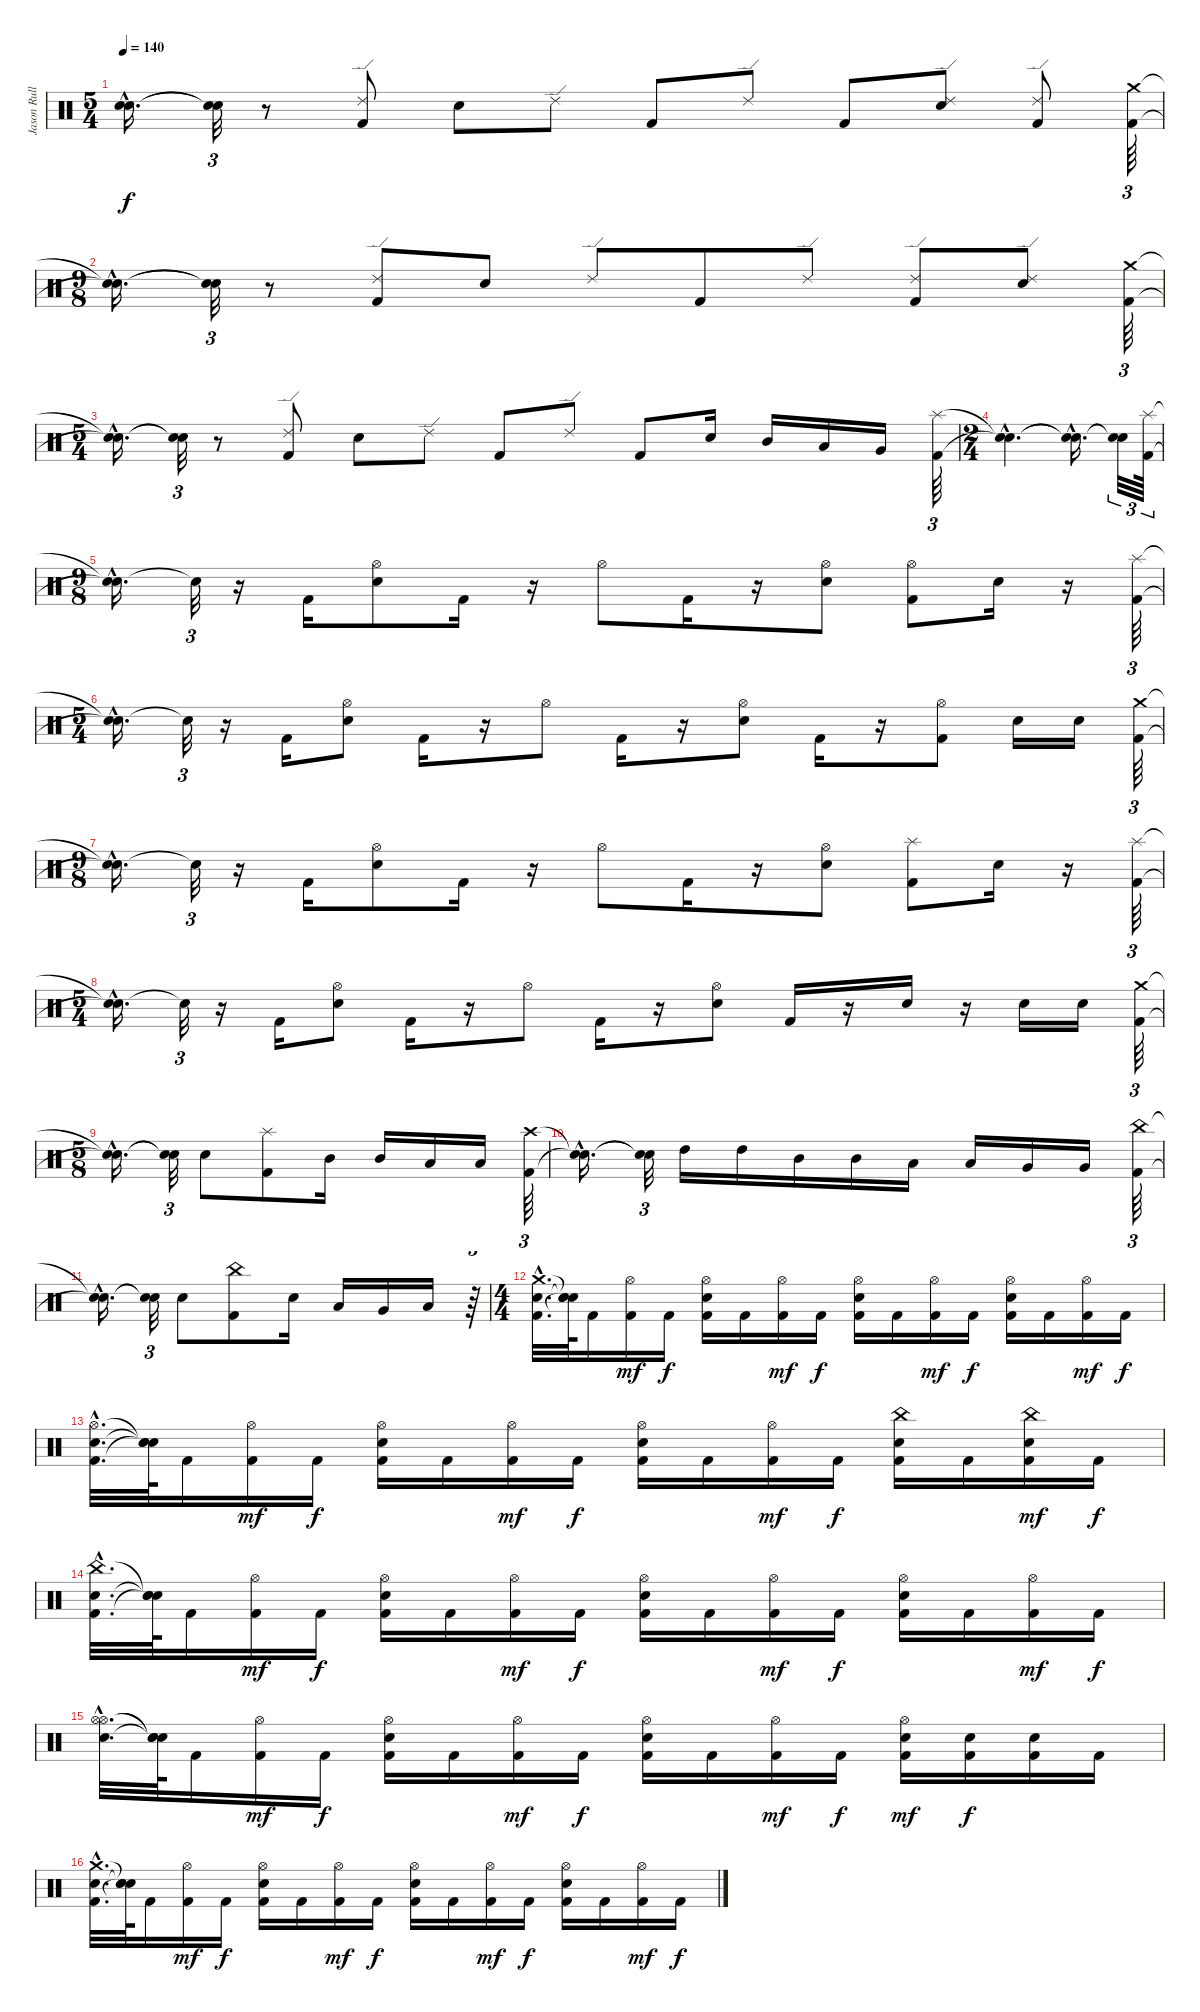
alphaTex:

\track ("Jason Rullo" "Jason Rull") {instrument percussion}
\staff {score}
\articulation defaults
\ts (5 4)
\tempo 140
\clef neutral
\ks c
("Snare (hit)"{hac t} "Snare (hit)"{hac t}).16{d dy f} ("Snare (hit)"{t} "Snare (hit)"{t}).32{tu (3 2)} r.8 ("Kick (hit) 2" "Ride (edge) 2").8 "Electric Snare (hit)".8 "Ride (edge) 2".8 "Kick (hit) 2".8 "Ride (edge) 2".8 "Kick (hit) 2".8 ("Electric Snare (hit)" "Ride (edge) 2").8 ("Kick (hit) 2" "Ride (edge) 2").8 ("Kick (hit) 2" "Crash medium (hit)").64{tu (3 2)} |
\ts (9 8)
("Snare (hit)"{hac t} "Snare (hit)"{hac t}).16{d} ("Snare (hit)"{t} "Snare (hit)"{t}).32{tu (3 2)} r.8 ("Kick (hit) 2" "Ride (edge) 2").8 "Electric Snare (hit)".8 "Ride (edge) 2".8 "Kick (hit) 2".8 "Ride (edge) 2".8 ("Kick (hit) 2" "Ride (edge) 2").8 ("Electric Snare (hit)" "Ride (edge) 2").8 ("Kick (hit) 2" "Crash medium (hit)").64{tu (3 2)} |
\ts (5 4)
("Snare (hit)"{hac t} "Snare (hit)"{hac t}).16{d} ("Snare (hit)"{t} "Snare (hit)"{t}).32{tu (3 2)} r.8 ("Kick (hit) 2" "Ride (edge) 2").8 "Electric Snare (hit)".8 "Ride (edge) 2".8 "Kick (hit) 2".8 "Ride (edge) 2".8 "Kick (hit) 2".8 "Electric Snare (hit)".16 "Mid Tom (hit)".16 "Low Tom (hit)".16 "Very Low Tom (hit)".16 ("Splash (hit)" "Kick (hit) 2").64{tu (3 2)} |
\ts (2 4)
("Snare (hit)"{hac t} "Snare (hit)"{hac t}).4{d} ("Snare (hit)"{hac t} "Snare (hit)"{hac t}).16{d} ("Snare (hit)"{t} "Snare (hit)"{t}).32{tu (3 2)} ("Splash (hit)" "Kick (hit) 2").64{tu (3 2)} |
\ts (9 8)
("Snare (hit)"{hac t} "Snare (hit)"{hac t}).16{d} "Snare (hit)"{t}.32{tu (3 2)} r.16 "Kick (hit) 2".16 ("Hi-Hat (open)" "Electric Snare (hit)").8 "Kick (hit) 2".16 r.16 "Hi-Hat (open)".8 "Kick (hit) 2".16 r.16 ("Hi-Hat (open)" "Electric Snare (hit)").8 ("Hi-Hat (open)" "Kick (hit) 2").8 "Electric Snare (hit)".16 r.16 ("Splash (hit)" "Kick (hit) 2").64{tu (3 2)} |
\ts (5 4)
("Snare (hit)"{hac t} "Snare (hit)"{hac t}).16{d} "Snare (hit)"{t}.32{tu (3 2)} r.16 "Kick (hit) 2".16 ("Hi-Hat (open)" "Electric Snare (hit)").8 "Kick (hit) 2".16 r.16 "Hi-Hat (open)".8 "Kick (hit) 2".16 r.16 ("Hi-Hat (open)" "Electric Snare (hit)").8 "Kick (hit) 2".16 r.16 ("Hi-Hat (open)" "Kick (hit) 2").8 "Electric Snare (hit)".16 "Electric Snare (hit)".16 ("Crash medium (hit)" "Kick (hit) 2").64{tu (3 2)} |
\ts (9 8)
("Snare (hit)"{hac t} "Snare (hit)"{hac t}).16{d} "Snare (hit)"{t}.32{tu (3 2)} r.16 "Kick (hit) 2".16 ("Hi-Hat (open)" "Electric Snare (hit)").8 "Kick (hit) 2".16 r.16 "Hi-Hat (open)".8 "Kick (hit) 2".16 r.16 ("Hi-Hat (open)" "Electric Snare (hit)").8 ("Splash (hit)" "Kick (hit) 2").8 "Electric Snare (hit)".16 r.16 ("Splash (hit)" "Kick (hit) 2").64{tu (3 2)} |
\ts (5 4)
("Snare (hit)"{hac t} "Snare (hit)"{hac t}).16{d} "Snare (hit)"{t}.32{tu (3 2)} r.16 "Kick (hit) 2".16 ("Hi-Hat (open)" "Electric Snare (hit)").8 "Kick (hit) 2".16 r.16 "Hi-Hat (open)".8 "Kick (hit) 2".16 r.16 ("Hi-Hat (open)" "Electric Snare (hit)").8 "Kick (hit) 2".16 r.16 "Electric Snare (hit)".16 r.16 "Electric Snare (hit)".16 "Electric Snare (hit)".16 ("Crash medium (hit)" "Kick (hit) 2").64{tu (3 2)} |
\ts (5 8)
("Snare (hit)"{hac t} "Snare (hit)"{hac t}).16{d} ("Snare (hit)"{t} "Snare (hit)"{t}).32{tu (3 2)} "Electric Snare (hit)".8 ("Splash (hit)" "Kick (hit) 2").8 "Mid Tom (hit)".16 "Mid Tom (hit)".16 "Low Tom (hit)".16 "Low Tom (hit)".16 ("Crash high (hit)" "Kick (hit) 2").64{tu (3 2)} |
("Snare (hit)"{hac t} "Snare (hit)"{hac t}).16{d} ("Snare (hit)"{t} "Snare (hit)"{t}).32{tu (3 2)} "High Tom (hit)".16 "High Tom (hit)".16 "Mid Tom (hit)".16 "Mid Tom (hit)".16 "Low Tom (hit)".16 "Low Tom (hit)".16 "Very Low Tom (hit)".16 "Very Low Tom (hit)".16 ("China (hit)" "Kick (hit) 2").64{tu (3 2)} |
("Snare (hit)"{hac t} "Snare (hit)"{hac t}).16{d} ("Snare (hit)"{t} "Snare (hit)"{t}).32{tu (3 2)} "Electric Snare (hit)".8 ("China (hit)" "Kick (hit) 2").8 "Electric Snare (hit)".16 "Low Tom (hit)".16 "Very Low Tom (hit)".16 "Low Floor Tom (hit)".16 r.64{tu (3 2)} |
\ts (4 4)
("Crash medium (hit)"{hac} "Electric Snare (hit)"{hac} "Kick (hit) 2"{hac}).32{d} ("Snare (hit)"{t} "Snare (hit)"{t} "Snare (hit)"{t}).64 "Kick (hit) 2".16 ("Hi-Hat (open)" "Kick (hit) 2").16{dy mf} "Kick (hit) 2".16{dy f} ("Hi-Hat (open)" "Electric Snare (hit)" "Kick (hit) 2").16 "Kick (hit) 2".16 ("Hi-Hat (open)" "Kick (hit) 2").16{dy mf} "Kick (hit) 2".16{dy f} ("Hi-Hat (open)" "Electric Snare (hit)" "Kick (hit) 2").16 "Kick (hit) 2".16 ("Hi-Hat (open)" "Kick (hit) 2").16{dy mf} "Kick (hit) 2".16{dy f} ("Hi-Hat (open)" "Electric Snare (hit)" "Kick (hit) 2").16 "Kick (hit) 2".16 ("Hi-Hat (open)" "Kick (hit) 2").16{dy mf} "Kick (hit) 2".16{dy f} |
("Hi-Hat (open)"{hac} "Electric Snare (hit)"{hac} "Kick (hit) 2"{hac}).32{d} ("Snare (hit)"{t} "Snare (hit)"{t} "Snare (hit)"{t}).64 "Kick (hit) 2".16 ("Hi-Hat (open)" "Kick (hit) 2").16{dy mf} "Kick (hit) 2".16{dy f} ("Hi-Hat (open)" "Electric Snare (hit)" "Kick (hit) 2").16 "Kick (hit) 2".16 ("Hi-Hat (open)" "Kick (hit) 2").16{dy mf} "Kick (hit) 2".16{dy f} ("Hi-Hat (open)" "Electric Snare (hit)" "Kick (hit) 2").16 "Kick (hit) 2".16 ("Hi-Hat (open)" "Kick (hit) 2").16{dy mf} "Kick (hit) 2".16{dy f} ("China (hit)" "Electric Snare (hit)" "Kick (hit) 2").16 "Kick (hit) 2".16 ("Electric Snare (hit)" "China (hit)" "Kick (hit) 2").16{dy mf} "Kick (hit) 2".16{dy f} |
("China (hit)"{hac} "Electric Snare (hit)"{hac} "Kick (hit) 2"{hac}).32{d} ("Snare (hit)"{t} "Snare (hit)"{t} "Snare (hit)"{t}).64 "Kick (hit) 2".16 ("Hi-Hat (open)" "Kick (hit) 2").16{dy mf} "Kick (hit) 2".16{dy f} ("Hi-Hat (open)" "Electric Snare (hit)" "Kick (hit) 2").16 "Kick (hit) 2".16 ("Hi-Hat (open)" "Kick (hit) 2").16{dy mf} "Kick (hit) 2".16{dy f} ("Hi-Hat (open)" "Electric Snare (hit)" "Kick (hit) 2").16 "Kick (hit) 2".16 ("Hi-Hat (open)" "Kick (hit) 2").16{dy mf} "Kick (hit) 2".16{dy f} ("Hi-Hat (open)" "Electric Snare (hit)" "Kick (hit) 2").16 "Kick (hit) 2".16 ("Hi-Hat (open)" "Kick (hit) 2").16{dy mf} "Kick (hit) 2".16{dy f} |
("Hi-Hat (open)"{hac} "Electric Snare (hit)"{hac} "Hi-Hat (open)"{hac}).32{d} ("Snare (hit)"{t} "Snare (hit)"{t} "Snare (hit)"{t}).64 "Kick (hit) 2".16 ("Hi-Hat (open)" "Kick (hit) 2").16{dy mf} "Kick (hit) 2".16{dy f} ("Hi-Hat (open)" "Electric Snare (hit)" "Kick (hit) 2").16 "Kick (hit) 2".16 ("Hi-Hat (open)" "Kick (hit) 2").16{dy mf} "Kick (hit) 2".16{dy f} ("Hi-Hat (open)" "Electric Snare (hit)" "Kick (hit) 2").16 "Kick (hit) 2".16 ("Hi-Hat (open)" "Kick (hit) 2").16{dy mf} "Kick (hit) 2".16{dy f} ("Hi-Hat (open)" "Electric Snare (hit)" "Kick (hit) 2").16{dy mf} ("Electric Snare (hit)" "Kick (hit) 2").16{dy f} ("Electric Snare (hit)" "Kick (hit) 2").16 "Kick (hit) 2".16 |
("Crash medium (hit)"{hac} "Electric Snare (hit)"{hac} "Kick (hit) 2"{hac}).32{d} ("Snare (hit)"{t} "Snare (hit)"{t} "Snare (hit)"{t}).64 "Kick (hit) 2".16 ("Hi-Hat (open)" "Kick (hit) 2").16{dy mf} "Kick (hit) 2".16{dy f} ("Hi-Hat (open)" "Electric Snare (hit)" "Kick (hit) 2").16 "Kick (hit) 2".16 ("Hi-Hat (open)" "Kick (hit) 2").16{dy mf} "Kick (hit) 2".16{dy f} ("Hi-Hat (open)" "Electric Snare (hit)" "Kick (hit) 2").16 "Kick (hit) 2".16 ("Hi-Hat (open)" "Kick (hit) 2").16{dy mf} "Kick (hit) 2".16{dy f} ("Hi-Hat (open)" "Electric Snare (hit)" "Kick (hit) 2").16 "Kick (hit) 2".16 ("Hi-Hat (open)" "Kick (hit) 2").16{dy mf} "Kick (hit) 2".16{dy f}
